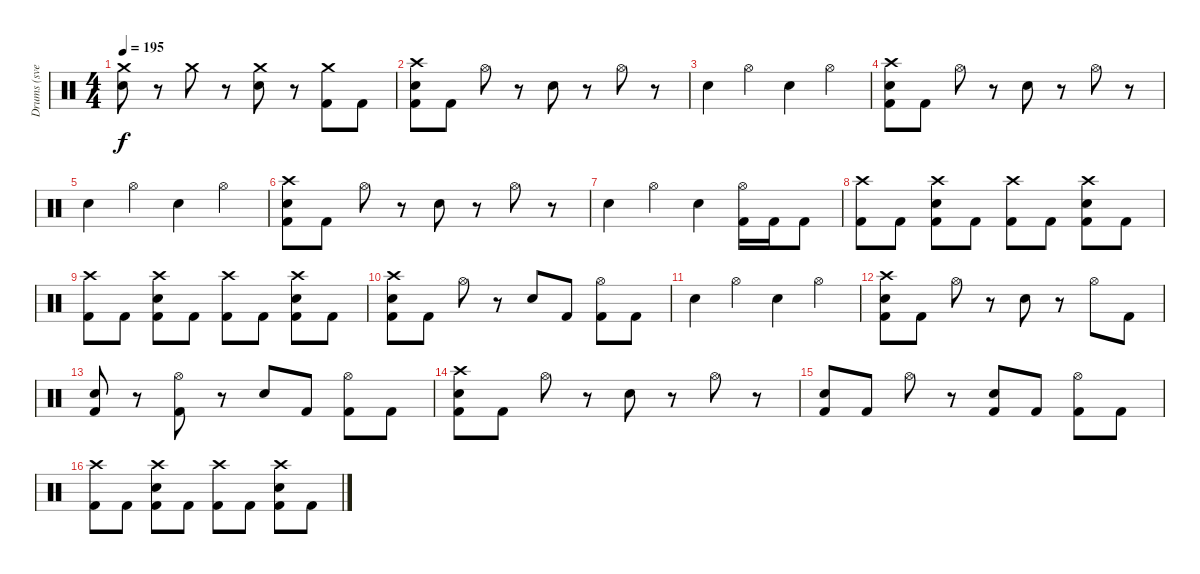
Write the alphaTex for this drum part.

\track ("Drums (svelle)" "Drums (sve") {instrument percussion}
\staff {score}
\articulation defaults
\ts (4 4)
\tempo 195
\clef neutral
\ks c
("Crash medium (hit)" "Electric Snare (hit)").8{dy f} r.8 "Crash medium (hit)".8 r.8 ("Crash medium (hit)" "Electric Snare (hit)").8 r.8 ("Crash medium (hit)" "Kick (hit) 2").8 "Kick (hit) 2".8 |
("Crash high (hit)" "Electric Snare (hit)" "Kick (hit) 2").8 "Kick (hit) 2".8 "Hi-Hat (open)".8 r.8 "Electric Snare (hit)".8 r.8 "Hi-Hat (open)".8 r.8 |
"Electric Snare (hit)".4 "Hi-Hat (open)".4 "Electric Snare (hit)".4 "Hi-Hat (open)".4 |
("Crash high (hit)" "Electric Snare (hit)" "Kick (hit) 2").8 "Kick (hit) 2".8 "Hi-Hat (open)".8 r.8 "Electric Snare (hit)".8 r.8 "Hi-Hat (open)".8 r.8 |
"Electric Snare (hit)".4 "Hi-Hat (open)".4 "Electric Snare (hit)".4 "Hi-Hat (open)".4 |
("Crash high (hit)" "Electric Snare (hit)" "Kick (hit) 2").8 "Kick (hit) 2".8 "Hi-Hat (open)".8 r.8 "Electric Snare (hit)".8 r.8 "Hi-Hat (open)".8 r.8 |
"Electric Snare (hit)".4 "Hi-Hat (open)".4 "Electric Snare (hit)".4 ("Hi-Hat (open)" "Kick (hit) 2").16 "Kick (hit) 2".16 "Kick (hit) 2".8 |
("Crash high (hit)" "Kick (hit) 2").8 "Kick (hit) 2".8 ("Crash high (hit)" "Electric Snare (hit)" "Kick (hit) 2").8 "Kick (hit) 2".8 ("Crash high (hit)" "Kick (hit) 2").8 "Kick (hit) 2".8 ("Crash high (hit)" "Electric Snare (hit)" "Kick (hit) 2").8 "Kick (hit) 2".8 |
("Crash high (hit)" "Kick (hit) 2").8 "Kick (hit) 2".8 ("Crash high (hit)" "Electric Snare (hit)" "Kick (hit) 2").8 "Kick (hit) 2".8 ("Crash high (hit)" "Kick (hit) 2").8 "Kick (hit) 2".8 ("Crash high (hit)" "Electric Snare (hit)" "Kick (hit) 2").8 "Kick (hit) 2".8 |
("Crash high (hit)" "Electric Snare (hit)" "Kick (hit) 2").8 "Kick (hit) 2".8 "Hi-Hat (open)".8 r.8 "Electric Snare (hit)".8 "Kick (hit) 2".8 ("Hi-Hat (open)" "Kick (hit) 2").8 "Kick (hit) 2".8 |
"Electric Snare (hit)".4 "Hi-Hat (open)".4 "Electric Snare (hit)".4 "Hi-Hat (open)".4 |
("Crash high (hit)" "Electric Snare (hit)" "Kick (hit) 2").8 "Kick (hit) 2".8 "Hi-Hat (open)".8 r.8 "Electric Snare (hit)".8 r.8 "Hi-Hat (open)".8 "Kick (hit) 2".8 |
("Electric Snare (hit)" "Kick (hit) 2").8 r.8 ("Hi-Hat (open)" "Kick (hit) 2").8 r.8 "Electric Snare (hit)".8 "Kick (hit) 2".8 ("Hi-Hat (open)" "Kick (hit) 2").8 "Kick (hit) 2".8 |
("Crash high (hit)" "Electric Snare (hit)" "Kick (hit) 2").8 "Kick (hit) 2".8 "Hi-Hat (open)".8 r.8 "Electric Snare (hit)".8 r.8 "Hi-Hat (open)".8 r.8 |
("Electric Snare (hit)" "Kick (hit) 2").8 "Kick (hit) 2".8 "Hi-Hat (open)".8 r.8 ("Electric Snare (hit)" "Kick (hit) 2").8 "Kick (hit) 2".8 ("Hi-Hat (open)" "Kick (hit) 2").8 "Kick (hit) 2".8 |
("Crash high (hit)" "Kick (hit) 2").8 "Kick (hit) 2".8 ("Crash high (hit)" "Electric Snare (hit)" "Kick (hit) 2").8 "Kick (hit) 2".8 ("Crash high (hit)" "Kick (hit) 2").8 "Kick (hit) 2".8 ("Crash high (hit)" "Electric Snare (hit)" "Kick (hit) 2").8 "Kick (hit) 2".8
